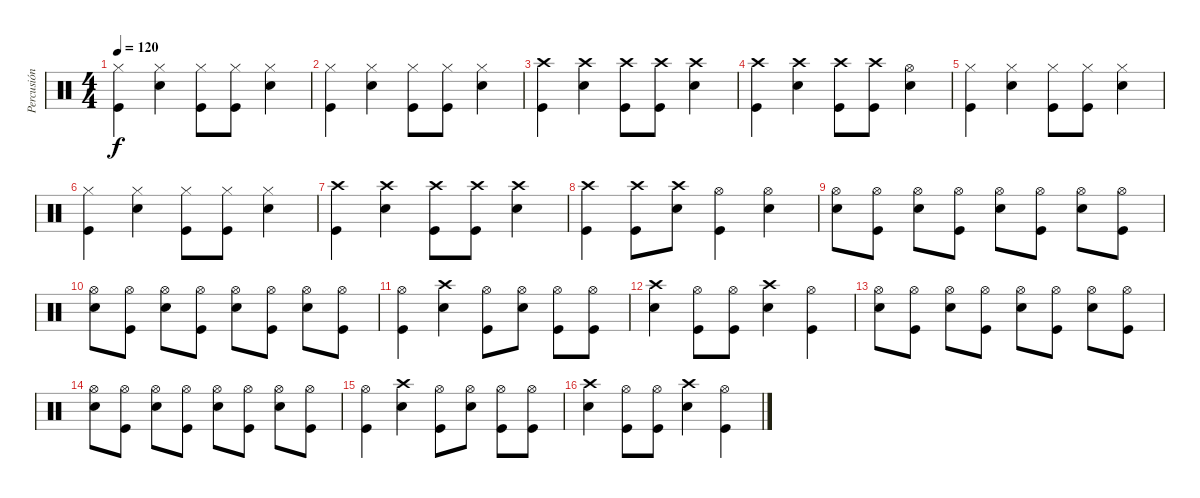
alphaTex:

\track ("Percusión" "Percusión") {instrument percussion}
\staff {score}
\articulation defaults
\ts (4 4)
\tempo 120
\clef neutral
\ks c
("Hi-Hat (closed)" "Kick (hit)").4{dy f} ("Hi-Hat (closed)" "Snare (hit) 2").4 ("Hi-Hat (closed)" "Kick (hit)").8 ("Hi-Hat (closed)" "Kick (hit)").8 ("Hi-Hat (closed)" "Snare (hit) 2").4 |
("Hi-Hat (closed)" "Kick (hit)").4 ("Hi-Hat (closed)" "Snare (hit) 2").4 ("Hi-Hat (closed)" "Kick (hit)").8 ("Hi-Hat (closed)" "Kick (hit)").8 ("Hi-Hat (closed)" "Snare (hit) 2").4 |
("Crash high (hit)" "Kick (hit)").4 ("Crash high (hit)" "Snare (hit) 2").4 ("Crash high (hit)" "Kick (hit)").8 ("Crash high (hit)" "Kick (hit)").8 ("Crash high (hit)" "Snare (hit) 2").4 |
("Crash high (hit)" "Kick (hit)").4 ("Crash high (hit)" "Snare (hit) 2").4 ("Crash high (hit)" "Kick (hit)").8 ("Crash high (hit)" "Kick (hit)").8 ("Hi-Hat (open)" "Snare (hit) 2").4 |
("Hi-Hat (closed)" "Kick (hit)").4 ("Hi-Hat (closed)" "Snare (hit) 2").4 ("Hi-Hat (closed)" "Kick (hit)").8 ("Hi-Hat (closed)" "Kick (hit)").8 ("Hi-Hat (closed)" "Snare (hit) 2").4 |
("Hi-Hat (closed)" "Kick (hit)").4 ("Hi-Hat (closed)" "Snare (hit) 2").4 ("Hi-Hat (closed)" "Kick (hit)").8 ("Hi-Hat (closed)" "Kick (hit)").8 ("Hi-Hat (closed)" "Snare (hit) 2").4 |
("Crash high (hit)" "Kick (hit)").4 ("Crash high (hit)" "Snare (hit) 2").4 ("Crash high (hit)" "Kick (hit)").8 ("Crash high (hit)" "Kick (hit)").8 ("Crash high (hit)" "Snare (hit) 2").4 |
("Crash high (hit)" "Kick (hit)").4 ("Crash high (hit)" "Kick (hit)").8 ("Crash high (hit)" "Snare (hit) 2").8 ("Hi-Hat (open)" "Kick (hit)").4 ("Hi-Hat (open)" "Snare (hit) 2").4 |
("Hi-Hat (open)" "Snare (hit) 2").8 ("Hi-Hat (open)" "Kick (hit)").8 ("Hi-Hat (open)" "Snare (hit) 2").8 ("Hi-Hat (open)" "Kick (hit)").8 ("Hi-Hat (open)" "Snare (hit) 2").8 ("Hi-Hat (open)" "Kick (hit)").8 ("Hi-Hat (open)" "Snare (hit) 2").8 ("Hi-Hat (open)" "Kick (hit)").8 |
("Hi-Hat (open)" "Snare (hit) 2").8 ("Hi-Hat (open)" "Kick (hit)").8 ("Hi-Hat (open)" "Snare (hit) 2").8 ("Hi-Hat (open)" "Kick (hit)").8 ("Hi-Hat (open)" "Snare (hit) 2").8 ("Hi-Hat (open)" "Kick (hit)").8 ("Hi-Hat (open)" "Snare (hit) 2").8 ("Hi-Hat (open)" "Kick (hit)").8 |
("Hi-Hat (open)" "Kick (hit)").4 ("Crash high (hit)" "Snare (hit) 2").4 ("Hi-Hat (open)" "Kick (hit)").8 ("Hi-Hat (open)" "Snare (hit) 2").8 ("Hi-Hat (open)" "Kick (hit)").8 ("Hi-Hat (open)" "Kick (hit)").8 |
("Crash high (hit)" "Snare (hit) 2").4 ("Hi-Hat (open)" "Kick (hit)").8 ("Hi-Hat (open)" "Kick (hit)").8 ("Crash high (hit)" "Snare (hit) 2").4 ("Hi-Hat (open)" "Kick (hit)").4 |
("Hi-Hat (open)" "Snare (hit) 2").8 ("Hi-Hat (open)" "Kick (hit)").8 ("Hi-Hat (open)" "Snare (hit) 2").8 ("Hi-Hat (open)" "Kick (hit)").8 ("Hi-Hat (open)" "Snare (hit) 2").8 ("Hi-Hat (open)" "Kick (hit)").8 ("Hi-Hat (open)" "Snare (hit) 2").8 ("Hi-Hat (open)" "Kick (hit)").8 |
("Hi-Hat (open)" "Snare (hit) 2").8 ("Hi-Hat (open)" "Kick (hit)").8 ("Hi-Hat (open)" "Snare (hit) 2").8 ("Hi-Hat (open)" "Kick (hit)").8 ("Hi-Hat (open)" "Snare (hit) 2").8 ("Hi-Hat (open)" "Kick (hit)").8 ("Hi-Hat (open)" "Snare (hit) 2").8 ("Hi-Hat (open)" "Kick (hit)").8 |
("Hi-Hat (open)" "Kick (hit)").4 ("Crash high (hit)" "Snare (hit) 2").4 ("Hi-Hat (open)" "Kick (hit)").8 ("Hi-Hat (open)" "Snare (hit) 2").8 ("Hi-Hat (open)" "Kick (hit)").8 ("Hi-Hat (open)" "Kick (hit)").8 |
("Crash high (hit)" "Snare (hit) 2").4 ("Hi-Hat (open)" "Kick (hit)").8 ("Hi-Hat (open)" "Kick (hit)").8 ("Crash high (hit)" "Snare (hit) 2").4 ("Hi-Hat (open)" "Kick (hit)").4
